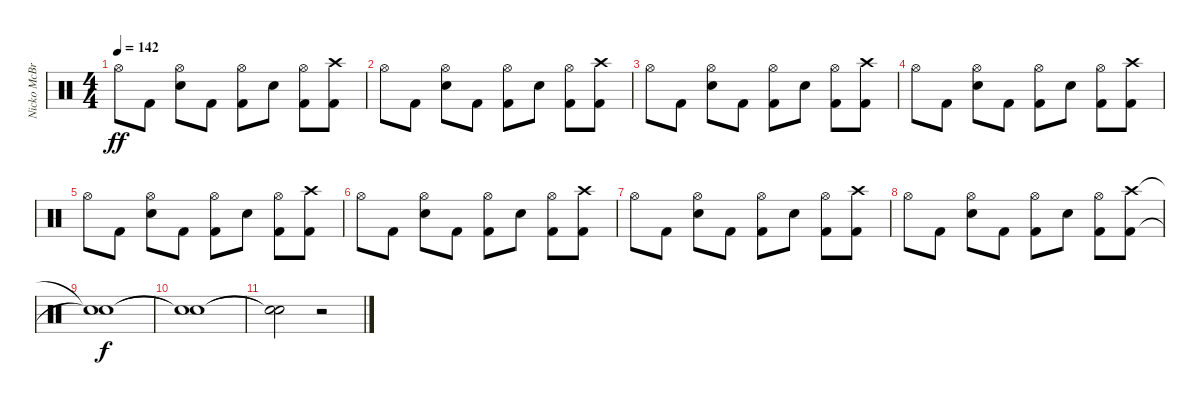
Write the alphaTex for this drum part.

\track ("Nicko McBrain" "Nicko McBr") {instrument percussion}
\staff {score}
\articulation defaults
\ts (4 4)
\tempo 142
\clef neutral
\ks c "Hi-Hat (open)".8{dy ff} "Kick (hit) 2".8
("Snare (hit) 2" "Hi-Hat (open)").8 "Kick (hit) 2".8 ("Kick (hit) 2" "Hi-Hat (open)").8 "Snare (hit) 2".8 ("Kick (hit) 2" "Hi-Hat (open)").8 ("Kick (hit) 2" "Crash high (hit)").8 |
"Hi-Hat (open)".8 "Kick (hit) 2".8 ("Snare (hit) 2" "Hi-Hat (open)").8 "Kick (hit) 2".8 ("Kick (hit) 2" "Hi-Hat (open)").8 "Snare (hit) 2".8 ("Kick (hit) 2" "Hi-Hat (open)").8 ("Kick (hit) 2" "Crash high (hit)").8 |
"Hi-Hat (open)".8 "Kick (hit) 2".8 ("Snare (hit) 2" "Hi-Hat (open)").8 "Kick (hit) 2".8 ("Kick (hit) 2" "Hi-Hat (open)").8 "Snare (hit) 2".8 ("Kick (hit) 2" "Hi-Hat (open)").8 ("Kick (hit) 2" "Crash high (hit)").8 |
"Hi-Hat (open)".8 "Kick (hit) 2".8 ("Snare (hit) 2" "Hi-Hat (open)").8 "Kick (hit) 2".8 ("Kick (hit) 2" "Hi-Hat (open)").8 "Snare (hit) 2".8 ("Kick (hit) 2" "Hi-Hat (open)").8 ("Kick (hit) 2" "Crash high (hit)").8 |
"Hi-Hat (open)".8 "Kick (hit) 2".8 ("Snare (hit) 2" "Hi-Hat (open)").8 "Kick (hit) 2".8 ("Kick (hit) 2" "Hi-Hat (open)").8 "Snare (hit) 2".8 ("Kick (hit) 2" "Hi-Hat (open)").8 ("Kick (hit) 2" "Crash high (hit)").8 |
"Hi-Hat (open)".8 "Kick (hit) 2".8 ("Snare (hit) 2" "Hi-Hat (open)").8 "Kick (hit) 2".8 ("Kick (hit) 2" "Hi-Hat (open)").8 "Snare (hit) 2".8 ("Kick (hit) 2" "Hi-Hat (open)").8 ("Kick (hit) 2" "Crash high (hit)").8 |
"Hi-Hat (open)".8 "Kick (hit) 2".8 ("Snare (hit) 2" "Hi-Hat (open)").8 "Kick (hit) 2".8 ("Kick (hit) 2" "Hi-Hat (open)").8 "Snare (hit) 2".8 ("Kick (hit) 2" "Hi-Hat (open)").8 ("Kick (hit) 2" "Crash high (hit)").8 |
"Hi-Hat (open)".8 "Kick (hit) 2".8 ("Snare (hit) 2" "Hi-Hat (open)").8 "Kick (hit) 2".8 ("Kick (hit) 2" "Hi-Hat (open)").8 "Snare (hit) 2".8 ("Kick (hit) 2" "Hi-Hat (open)").8 ("Kick (hit) 2" "Crash high (hit)").8 |
("Snare (hit)"{t} "Snare (hit)"{t}).1{dy f} |
("Snare (hit)"{t} "Snare (hit)"{t}).1 |
("Snare (hit)"{t} "Snare (hit)"{t}).2 r.2
